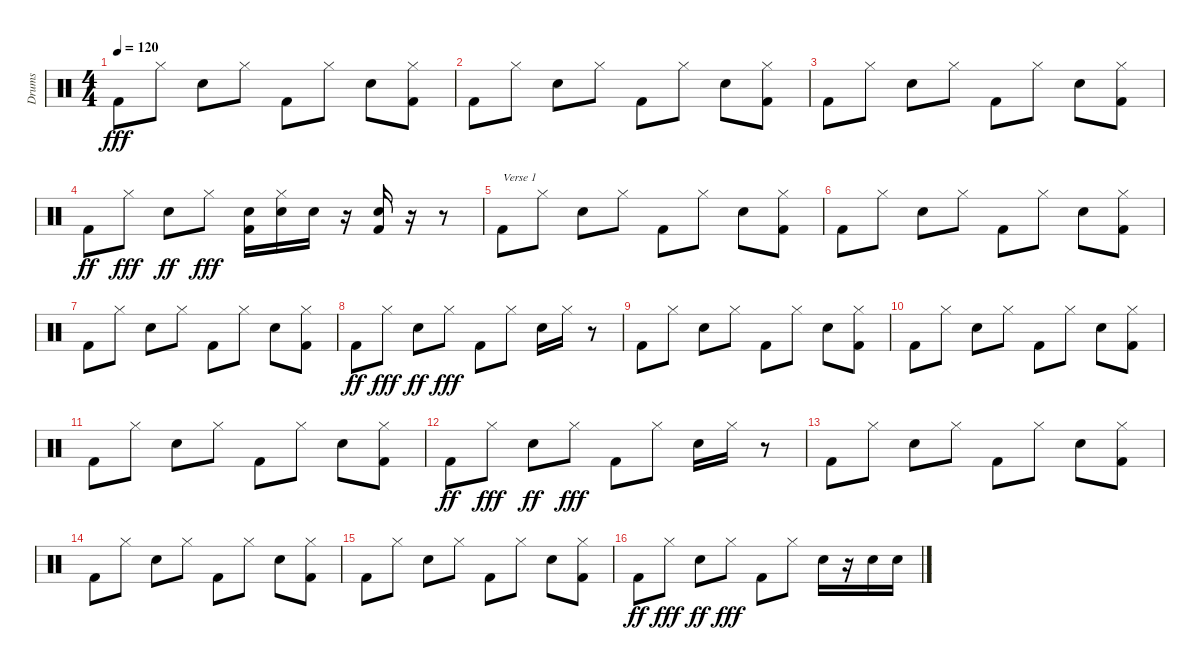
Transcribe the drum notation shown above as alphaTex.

\track ("Drums" "Drums") {instrument percussion}
\staff {score}
\articulation defaults
\ts (4 4)
\tempo 120
\clef neutral
\ks c "Kick (hit) 2".8{dy fff} "Hi-Hat (closed)".8 "Snare (hit) 2".8 "Hi-Hat (closed)".8 "Kick (hit) 2".8 "Hi-Hat (closed)".8 "Snare (hit) 2".8
("Hi-Hat (closed)" "Kick (hit) 2").8 |
"Kick (hit) 2".8 "Hi-Hat (closed)".8 "Snare (hit) 2".8 "Hi-Hat (closed)".8 "Kick (hit) 2".8 "Hi-Hat (closed)".8 "Snare (hit) 2".8 ("Hi-Hat (closed)" "Kick (hit) 2").8 |
"Kick (hit) 2".8 "Hi-Hat (closed)".8 "Snare (hit) 2".8 "Hi-Hat (closed)".8 "Kick (hit) 2".8 "Hi-Hat (closed)".8 "Snare (hit) 2".8 ("Hi-Hat (closed)" "Kick (hit) 2").8 |
"Kick (hit) 2".8{dy ff} "Hi-Hat (closed)".8{dy fff} "Snare (hit) 2".8{dy ff} "Hi-Hat (closed)".8{dy fff} ("Snare (hit) 2" "Kick (hit) 2").16 ("Hi-Hat (closed)" "Snare (hit) 2").16 "Snare (hit) 2".16 r.16 ("Snare (hit) 2" "Kick (hit) 2").16 r.16 r.8 |
"Kick (hit) 2".8{txt "Verse 1"} "Hi-Hat (closed)".8 "Snare (hit) 2".8 "Hi-Hat (closed)".8 "Kick (hit) 2".8 "Hi-Hat (closed)".8 "Snare (hit) 2".8 ("Hi-Hat (closed)" "Kick (hit) 2").8 |
"Kick (hit) 2".8 "Hi-Hat (closed)".8 "Snare (hit) 2".8 "Hi-Hat (closed)".8 "Kick (hit) 2".8 "Hi-Hat (closed)".8 "Snare (hit) 2".8 ("Hi-Hat (closed)" "Kick (hit) 2").8 |
"Kick (hit) 2".8 "Hi-Hat (closed)".8 "Snare (hit) 2".8 "Hi-Hat (closed)".8 "Kick (hit) 2".8 "Hi-Hat (closed)".8 "Snare (hit) 2".8 ("Hi-Hat (closed)" "Kick (hit) 2").8 |
"Kick (hit) 2".8{dy ff} "Hi-Hat (closed)".8{dy fff} "Snare (hit) 2".8{dy ff} "Hi-Hat (closed)".8{dy fff} "Kick (hit) 2".8 "Hi-Hat (closed)".8 "Snare (hit) 2".16 "Hi-Hat (closed)".16 r.8 |
"Kick (hit) 2".8 "Hi-Hat (closed)".8 "Snare (hit) 2".8 "Hi-Hat (closed)".8 "Kick (hit) 2".8 "Hi-Hat (closed)".8 "Snare (hit) 2".8 ("Hi-Hat (closed)" "Kick (hit) 2").8 |
"Kick (hit) 2".8 "Hi-Hat (closed)".8 "Snare (hit) 2".8 "Hi-Hat (closed)".8 "Kick (hit) 2".8 "Hi-Hat (closed)".8 "Snare (hit) 2".8 ("Hi-Hat (closed)" "Kick (hit) 2").8 |
"Kick (hit) 2".8 "Hi-Hat (closed)".8 "Snare (hit) 2".8 "Hi-Hat (closed)".8 "Kick (hit) 2".8 "Hi-Hat (closed)".8 "Snare (hit) 2".8 ("Hi-Hat (closed)" "Kick (hit) 2").8 |
"Kick (hit) 2".8{dy ff} "Hi-Hat (closed)".8{dy fff} "Snare (hit) 2".8{dy ff} "Hi-Hat (closed)".8{dy fff} "Kick (hit) 2".8 "Hi-Hat (closed)".8 "Snare (hit) 2".16 "Hi-Hat (closed)".16 r.8 |
"Kick (hit) 2".8 "Hi-Hat (closed)".8 "Snare (hit) 2".8 "Hi-Hat (closed)".8 "Kick (hit) 2".8 "Hi-Hat (closed)".8 "Snare (hit) 2".8 ("Hi-Hat (closed)" "Kick (hit) 2").8 |
"Kick (hit) 2".8 "Hi-Hat (closed)".8 "Snare (hit) 2".8 "Hi-Hat (closed)".8 "Kick (hit) 2".8 "Hi-Hat (closed)".8 "Snare (hit) 2".8 ("Hi-Hat (closed)" "Kick (hit) 2").8 |
"Kick (hit) 2".8 "Hi-Hat (closed)".8 "Snare (hit) 2".8 "Hi-Hat (closed)".8 "Kick (hit) 2".8 "Hi-Hat (closed)".8 "Snare (hit) 2".8 ("Hi-Hat (closed)" "Kick (hit) 2").8 |
"Kick (hit) 2".8{dy ff} "Hi-Hat (closed)".8{dy fff} "Snare (hit) 2".8{dy ff} "Hi-Hat (closed)".8{dy fff} "Kick (hit) 2".8 "Hi-Hat (closed)".8 "Snare (hit) 2".16 r.16 "Snare (hit) 2".16 "Snare (hit) 2".16
